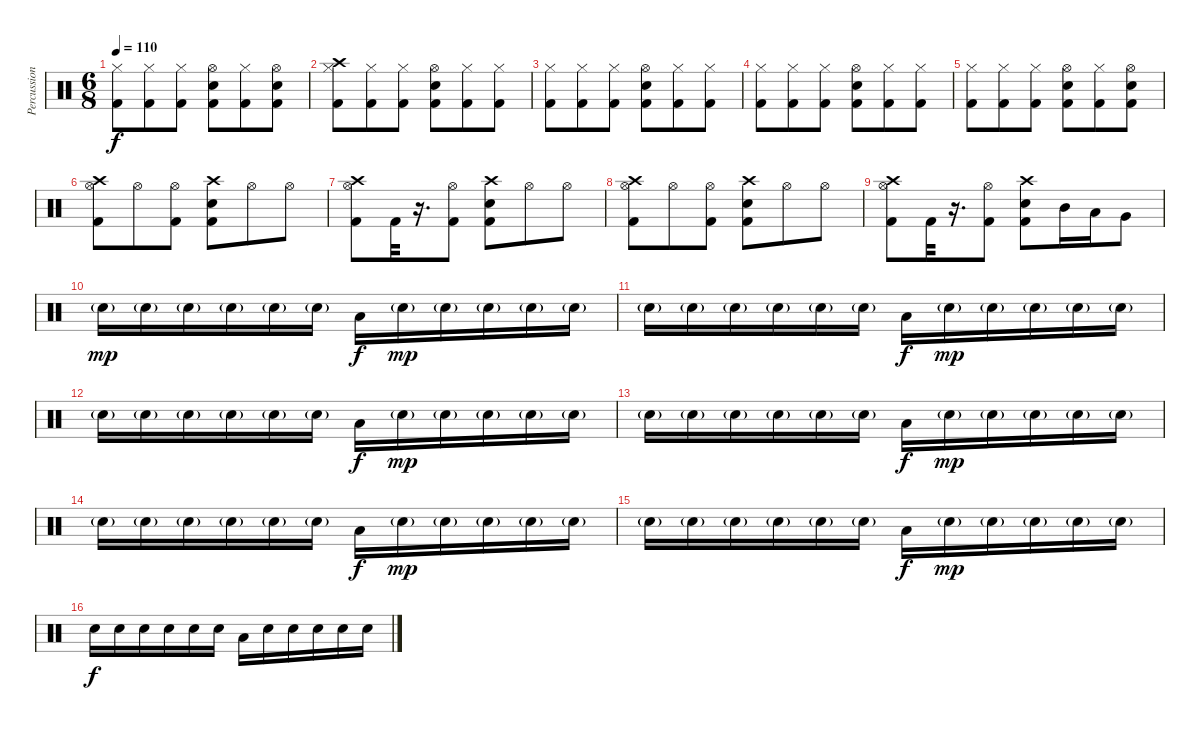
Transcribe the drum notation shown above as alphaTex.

\track ("Percussion" "Percussion") {instrument percussion}
\staff {score}
\articulation defaults
\ts (6 8)
\tempo 110
\clef neutral
\ks c
("Hi-Hat (closed)" "Kick (hit) 2").8{dy f} ("Hi-Hat (closed)" "Kick (hit) 2").8 ("Hi-Hat (closed)" "Kick (hit) 2").8 ("Hi-Hat (open)" "Electric Snare (hit)" "Kick (hit) 2").8 ("Hi-Hat (closed)" "Kick (hit) 2").8 ("Hi-Hat (open)" "Electric Snare (hit)" "Kick (hit) 2").8 |
("Crash high (hit)" "Hi-Hat (closed)" "Kick (hit) 2").8 ("Hi-Hat (closed)" "Kick (hit) 2").8 ("Hi-Hat (closed)" "Kick (hit) 2").8 ("Hi-Hat (open)" "Electric Snare (hit)" "Kick (hit) 2").8 ("Hi-Hat (closed)" "Kick (hit) 2").8 ("Hi-Hat (closed)" "Kick (hit) 2").8 |
("Hi-Hat (closed)" "Kick (hit) 2").8 ("Hi-Hat (closed)" "Kick (hit) 2").8 ("Hi-Hat (closed)" "Kick (hit) 2").8 ("Hi-Hat (open)" "Electric Snare (hit)" "Kick (hit) 2").8 ("Hi-Hat (closed)" "Kick (hit) 2").8 ("Hi-Hat (closed)" "Kick (hit) 2").8 |
("Hi-Hat (closed)" "Kick (hit) 2").8 ("Hi-Hat (closed)" "Kick (hit) 2").8 ("Hi-Hat (closed)" "Kick (hit) 2").8 ("Hi-Hat (open)" "Electric Snare (hit)" "Kick (hit) 2").8 ("Hi-Hat (closed)" "Kick (hit) 2").8 ("Hi-Hat (closed)" "Kick (hit) 2").8 |
("Hi-Hat (closed)" "Kick (hit) 2").8 ("Hi-Hat (closed)" "Kick (hit) 2").8 ("Hi-Hat (closed)" "Kick (hit) 2").8 ("Hi-Hat (open)" "Electric Snare (hit)" "Kick (hit) 2").8 ("Hi-Hat (closed)" "Kick (hit) 2").8 ("Hi-Hat (open)" "Electric Snare (hit)" "Kick (hit) 2").8 |
("Crash high (hit)" "Hi-Hat (open)" "Kick (hit) 2").8 "Hi-Hat (open)".8 ("Hi-Hat (open)" "Kick (hit) 2").8 ("Crash high (hit)" "Electric Snare (hit)" "Kick (hit) 2").8 "Hi-Hat (open)".8 "Hi-Hat (open)".8 |
("Crash high (hit)" "Hi-Hat (open)" "Kick (hit) 2").8 "Kick (hit) 2".32 r.16{d} ("Hi-Hat (open)" "Kick (hit) 2").8 ("Crash high (hit)" "Electric Snare (hit)" "Kick (hit) 2").8 "Hi-Hat (open)".8 "Hi-Hat (open)".8 |
("Crash high (hit)" "Hi-Hat (open)" "Kick (hit) 2").8 "Hi-Hat (open)".8 ("Hi-Hat (open)" "Kick (hit) 2").8 ("Crash high (hit)" "Electric Snare (hit)" "Kick (hit) 2").8 "Hi-Hat (open)".8 "Hi-Hat (open)".8 |
("Crash high (hit)" "Hi-Hat (open)" "Kick (hit) 2").8 "Kick (hit) 2".32 r.16{d} ("Hi-Hat (open)" "Kick (hit) 2").8 ("Crash high (hit)" "Electric Snare (hit)" "Kick (hit) 2").8 "Mid Tom (hit)".16 "Low Tom (hit)".16 "Very Low Tom (hit)".8 |
"Electric Snare (hit)"{g}.16{dy mp} "Electric Snare (hit)"{g}.16 "Electric Snare (hit)"{g}.16 "Electric Snare (hit)"{g}.16 "Electric Snare (hit)"{g}.16 "Electric Snare (hit)"{g}.16 "Low Floor Tom (hit)".16{dy f} "Electric Snare (hit)"{g}.16{dy mp} "Electric Snare (hit)"{g}.16 "Electric Snare (hit)"{g}.16 "Electric Snare (hit)"{g}.16 "Electric Snare (hit)"{g}.16 |
"Electric Snare (hit)"{g}.16 "Electric Snare (hit)"{g}.16 "Electric Snare (hit)"{g}.16 "Electric Snare (hit)"{g}.16 "Electric Snare (hit)"{g}.16 "Electric Snare (hit)"{g}.16 "Low Floor Tom (hit)".16{dy f} "Electric Snare (hit)"{g}.16{dy mp} "Electric Snare (hit)"{g}.16 "Electric Snare (hit)"{g}.16 "Electric Snare (hit)"{g}.16 "Electric Snare (hit)"{g}.16 |
"Electric Snare (hit)"{g}.16 "Electric Snare (hit)"{g}.16 "Electric Snare (hit)"{g}.16 "Electric Snare (hit)"{g}.16 "Electric Snare (hit)"{g}.16 "Electric Snare (hit)"{g}.16 "Low Floor Tom (hit)".16{dy f} "Electric Snare (hit)"{g}.16{dy mp} "Electric Snare (hit)"{g}.16 "Electric Snare (hit)"{g}.16 "Electric Snare (hit)"{g}.16 "Electric Snare (hit)"{g}.16 |
"Electric Snare (hit)"{g}.16 "Electric Snare (hit)"{g}.16 "Electric Snare (hit)"{g}.16 "Electric Snare (hit)"{g}.16 "Electric Snare (hit)"{g}.16 "Electric Snare (hit)"{g}.16 "Low Floor Tom (hit)".16{dy f} "Electric Snare (hit)"{g}.16{dy mp} "Electric Snare (hit)"{g}.16 "Electric Snare (hit)"{g}.16 "Electric Snare (hit)"{g}.16 "Electric Snare (hit)"{g}.16 |
"Electric Snare (hit)"{g}.16 "Electric Snare (hit)"{g}.16 "Electric Snare (hit)"{g}.16 "Electric Snare (hit)"{g}.16 "Electric Snare (hit)"{g}.16 "Electric Snare (hit)"{g}.16 "Low Floor Tom (hit)".16{dy f} "Electric Snare (hit)"{g}.16{dy mp} "Electric Snare (hit)"{g}.16 "Electric Snare (hit)"{g}.16 "Electric Snare (hit)"{g}.16 "Electric Snare (hit)"{g}.16 |
"Electric Snare (hit)"{g}.16 "Electric Snare (hit)"{g}.16 "Electric Snare (hit)"{g}.16 "Electric Snare (hit)"{g}.16 "Electric Snare (hit)"{g}.16 "Electric Snare (hit)"{g}.16 "Low Floor Tom (hit)".16{dy f} "Electric Snare (hit)"{g}.16{dy mp} "Electric Snare (hit)"{g}.16 "Electric Snare (hit)"{g}.16 "Electric Snare (hit)"{g}.16 "Electric Snare (hit)"{g}.16 |
"Electric Snare (hit)".16{dy f} "Electric Snare (hit)".16 "Electric Snare (hit)".16 "Electric Snare (hit)".16 "Electric Snare (hit)".16 "Electric Snare (hit)".16 "Low Floor Tom (hit)".16 "Electric Snare (hit)".16 "Electric Snare (hit)".16 "Electric Snare (hit)".16 "Electric Snare (hit)".16 "Electric Snare (hit)".16
